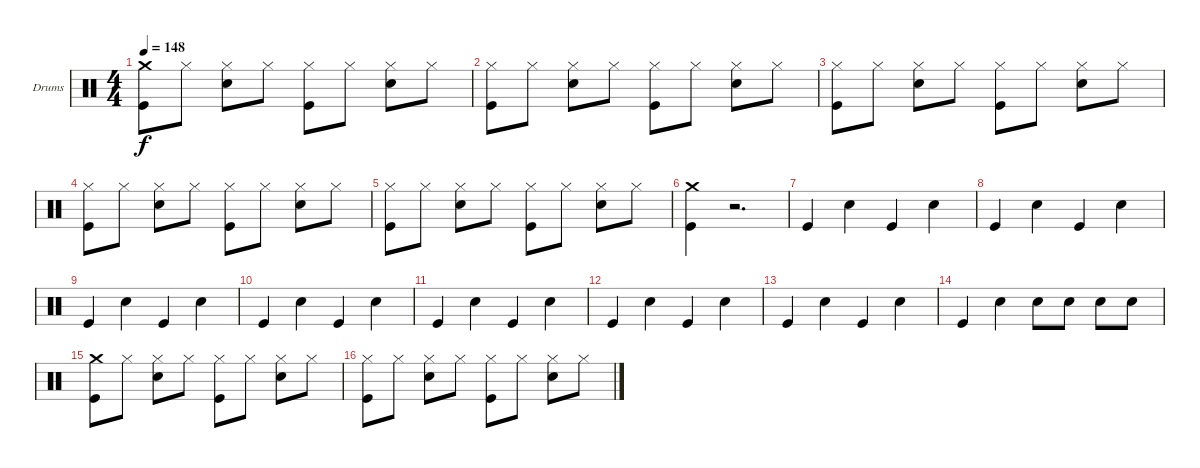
\defaultSystemsLayout 4
\bracketExtendMode groupsimilarinstruments
\firstSystemTrackNameOrientation horizontal
\otherSystemsTrackNameOrientation horizontal
\track ("Нюта" "Drums") {instrument percussion}
\staff {score}
\articulation defaults
\ts (4 4)
\tempo 148
\clef neutral
\scale
0.333333
\ks c
("Crash medium (hit)" "Kick (hit)").8{dy f} "Hi-Hat (closed)".8 ("Hi-Hat (closed)" "Snare (hit) 2").8 "Hi-Hat (closed)".8 ("Hi-Hat (closed)" "Kick (hit)").8 "Hi-Hat (closed)".8 ("Hi-Hat (closed)" "Snare (hit) 2").8 "Hi-Hat (closed)".8 |
\scale
0.333333 ("Hi-Hat (closed)" "Kick (hit)").8 "Hi-Hat (closed)".8 ("Hi-Hat (closed)" "Snare (hit) 2").8 "Hi-Hat (closed)".8 ("Hi-Hat (closed)" "Kick (hit)").8 "Hi-Hat (closed)".8 ("Hi-Hat (closed)" "Snare (hit) 2").8 "Hi-Hat (closed)".8 |
\scale
0.333333 ("Hi-Hat (closed)" "Kick (hit)").8 "Hi-Hat (closed)".8 ("Hi-Hat (closed)" "Snare (hit) 2").8 "Hi-Hat (closed)".8 ("Hi-Hat (closed)" "Kick (hit)").8 "Hi-Hat (closed)".8 ("Hi-Hat (closed)" "Snare (hit) 2").8 "Hi-Hat (closed)".8 |
\scale
0.333333 ("Hi-Hat (closed)" "Kick (hit)").8 "Hi-Hat (closed)".8 ("Hi-Hat (closed)" "Snare (hit) 2").8 "Hi-Hat (closed)".8 ("Hi-Hat (closed)" "Kick (hit)").8 "Hi-Hat (closed)".8 ("Hi-Hat (closed)" "Snare (hit) 2").8 "Hi-Hat (closed)".8 |
\scale
0.333333 ("Hi-Hat (closed)" "Kick (hit)").8 "Hi-Hat (closed)".8 ("Hi-Hat (closed)" "Snare (hit) 2").8 "Hi-Hat (closed)".8 ("Hi-Hat (closed)" "Kick (hit)").8 "Hi-Hat (closed)".8 ("Hi-Hat (closed)" "Snare (hit) 2").8 "Hi-Hat (closed)".8 |
\scale
0.333333 ("Crash medium (hit)" "Kick (hit)").4 r.2{d} |
\scale
0.333333 "Kick (hit)".4 "Snare (hit) 2".4 "Kick (hit)".4 "Snare (hit) 2".4 |
\scale
0.333333 "Kick (hit)".4 "Snare (hit) 2".4 "Kick (hit)".4 "Snare (hit) 2".4 |
\scale
0.333333 "Kick (hit)".4 "Snare (hit) 2".4 "Kick (hit)".4 "Snare (hit) 2".4 |
\scale
0.333333 "Kick (hit)".4 "Snare (hit) 2".4 "Kick (hit)".4 "Snare (hit) 2".4 |
\scale
0.333333 "Kick (hit)".4 "Snare (hit) 2".4 "Kick (hit)".4 "Snare (hit) 2".4 |
\scale
0.333333 "Kick (hit)".4 "Snare (hit) 2".4 "Kick (hit)".4 "Snare (hit) 2".4 |
\scale
0.333333 "Kick (hit)".4 "Snare (hit) 2".4 "Kick (hit)".4 "Snare (hit) 2".4 |
\scale
0.333333 "Kick (hit)".4 "Snare (hit) 2".4 "Snare (hit) 2".8 "Snare (hit) 2".8 "Snare (hit) 2".8 "Snare (hit) 2".8 |
\scale
0.333333 ("Crash medium (hit)" "Kick (hit)").8 "Hi-Hat (closed)".8 ("Hi-Hat (closed)" "Snare (hit) 2").8 "Hi-Hat (closed)".8 ("Hi-Hat (closed)" "Kick (hit)").8 "Hi-Hat (closed)".8 ("Hi-Hat (closed)" "Snare (hit) 2").8 "Hi-Hat (closed)".8 |
("Hi-Hat (closed)" "Kick (hit)").8 "Hi-Hat (closed)".8 ("Hi-Hat (closed)" "Snare (hit) 2").8 "Hi-Hat (closed)".8 ("Hi-Hat (closed)" "Kick (hit)").8 "Hi-Hat (closed)".8 ("Hi-Hat (closed)" "Snare (hit) 2").8 "Hi-Hat (closed)".8
